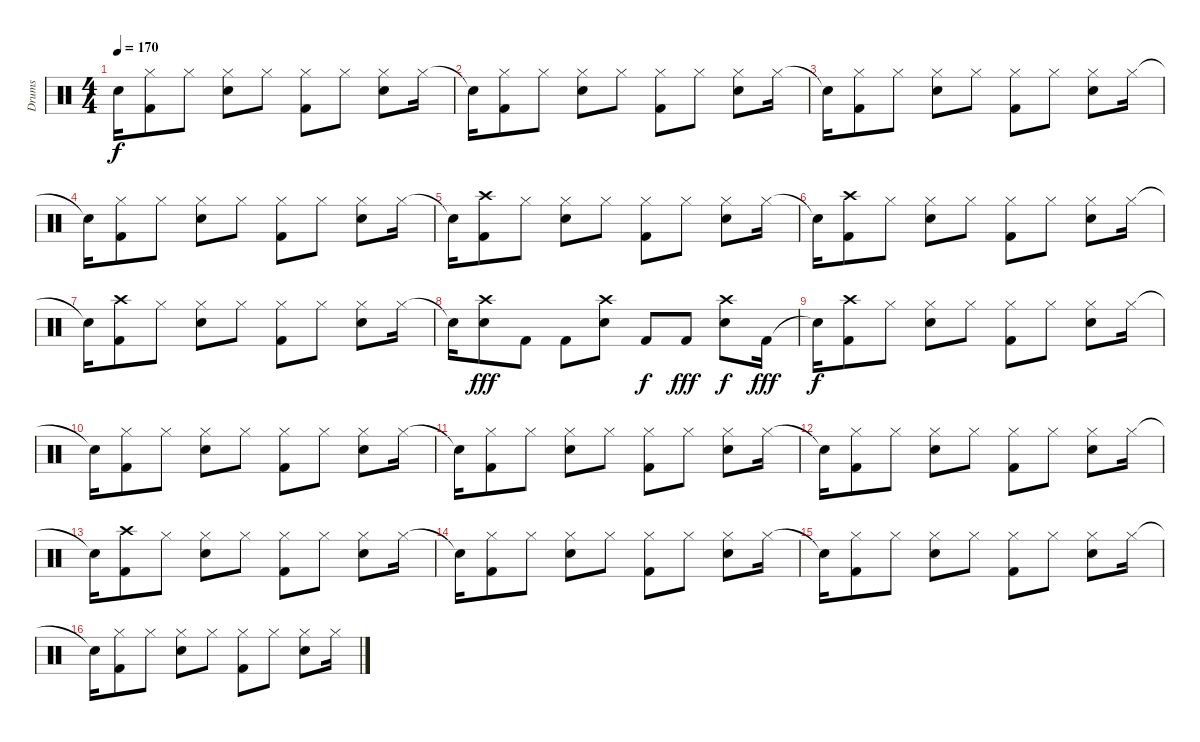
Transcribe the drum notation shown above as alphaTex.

\track ("Drums" "Drums") {instrument percussion}
\staff {score}
\articulation defaults
\ts (4 4)
\tempo 170
\clef neutral
\ks c "Snare (hit)"{t}.16{dy f}
("Kick (hit) 2" "Hi-Hat (closed)").8 "Hi-Hat (closed)".8 ("Snare (hit) 2" "Hi-Hat (closed)").8 "Hi-Hat (closed)".8 ("Kick (hit) 2" "Hi-Hat (closed)").8 "Hi-Hat (closed)".8 ("Snare (hit) 2" "Hi-Hat (closed)").8 "Hi-Hat (closed)".16 |
"Snare (hit)"{t}.16 ("Kick (hit) 2" "Hi-Hat (closed)").8 "Hi-Hat (closed)".8 ("Snare (hit) 2" "Hi-Hat (closed)").8 "Hi-Hat (closed)".8 ("Kick (hit) 2" "Hi-Hat (closed)").8 "Hi-Hat (closed)".8 ("Snare (hit) 2" "Hi-Hat (closed)").8 "Hi-Hat (closed)".16 |
"Snare (hit)"{t}.16 ("Kick (hit) 2" "Hi-Hat (closed)").8 "Hi-Hat (closed)".8 ("Snare (hit) 2" "Hi-Hat (closed)").8 "Hi-Hat (closed)".8 ("Kick (hit) 2" "Hi-Hat (closed)").8 "Hi-Hat (closed)".8 ("Snare (hit) 2" "Hi-Hat (closed)").8 "Hi-Hat (closed)".16 |
"Snare (hit)"{t}.16 ("Kick (hit) 2" "Hi-Hat (closed)").8 "Hi-Hat (closed)".8 ("Snare (hit) 2" "Hi-Hat (closed)").8 "Hi-Hat (closed)".8 ("Kick (hit) 2" "Hi-Hat (closed)").8 "Hi-Hat (closed)".8 ("Snare (hit) 2" "Hi-Hat (closed)").8 "Hi-Hat (closed)".16 |
"Snare (hit)"{t}.16 ("Kick (hit) 2" "Crash high (hit)").8 "Hi-Hat (closed)".8 ("Snare (hit) 2" "Hi-Hat (closed)").8 "Hi-Hat (closed)".8 ("Kick (hit) 2" "Hi-Hat (closed)").8 "Hi-Hat (closed)".8 ("Snare (hit) 2" "Hi-Hat (closed)").8 "Hi-Hat (closed)".16 |
"Snare (hit)"{t}.16 ("Kick (hit) 2" "Crash high (hit)").8 "Hi-Hat (closed)".8 ("Snare (hit) 2" "Hi-Hat (closed)").8 "Hi-Hat (closed)".8 ("Kick (hit) 2" "Hi-Hat (closed)").8 "Hi-Hat (closed)".8 ("Snare (hit) 2" "Hi-Hat (closed)").8 "Hi-Hat (closed)".16 |
"Snare (hit)"{t}.16 ("Kick (hit) 2" "Crash high (hit)").8 "Hi-Hat (closed)".8 ("Snare (hit) 2" "Hi-Hat (closed)").8 "Hi-Hat (closed)".8 ("Kick (hit) 2" "Hi-Hat (closed)").8 "Hi-Hat (closed)".8 ("Snare (hit) 2" "Hi-Hat (closed)").8 "Hi-Hat (closed)".16 |
"Snare (hit)"{t}.16 ("Crash high (hit)" "Snare (hit) 2").8{dy fff} "Kick (hit) 2".8 "Kick (hit) 2".8 ("Crash high (hit)" "Snare (hit) 2").8 "Kick (hit) 2".8{dy f} "Kick (hit) 2".8{dy fff} ("Crash high (hit)" "Snare (hit) 2").8{dy f} "Kick (hit) 2".16{dy fff} |
"Snare (hit)"{t}.16{dy f} ("Kick (hit) 2" "Crash high (hit)").8 "Hi-Hat (closed)".8 ("Snare (hit) 2" "Hi-Hat (closed)").8 "Hi-Hat (closed)".8 ("Kick (hit) 2" "Hi-Hat (closed)").8 "Hi-Hat (closed)".8 ("Snare (hit) 2" "Hi-Hat (closed)").8 "Hi-Hat (closed)".16 |
"Snare (hit)"{t}.16 ("Kick (hit) 2" "Hi-Hat (closed)").8 "Hi-Hat (closed)".8 ("Snare (hit) 2" "Hi-Hat (closed)").8 "Hi-Hat (closed)".8 ("Kick (hit) 2" "Hi-Hat (closed)").8 "Hi-Hat (closed)".8 ("Snare (hit) 2" "Hi-Hat (closed)").8 "Hi-Hat (closed)".16 |
"Snare (hit)"{t}.16 ("Kick (hit) 2" "Hi-Hat (closed)").8 "Hi-Hat (closed)".8 ("Snare (hit) 2" "Hi-Hat (closed)").8 "Hi-Hat (closed)".8 ("Kick (hit) 2" "Hi-Hat (closed)").8 "Hi-Hat (closed)".8 ("Snare (hit) 2" "Hi-Hat (closed)").8 "Hi-Hat (closed)".16 |
"Snare (hit)"{t}.16 ("Kick (hit) 2" "Hi-Hat (closed)").8 "Hi-Hat (closed)".8 ("Snare (hit) 2" "Hi-Hat (closed)").8 "Hi-Hat (closed)".8 ("Kick (hit) 2" "Hi-Hat (closed)").8 "Hi-Hat (closed)".8 ("Snare (hit) 2" "Hi-Hat (closed)").8 "Hi-Hat (closed)".16 |
"Snare (hit)"{t}.16 ("Kick (hit) 2" "Crash high (hit)").8 "Hi-Hat (closed)".8 ("Snare (hit) 2" "Hi-Hat (closed)").8 "Hi-Hat (closed)".8 ("Kick (hit) 2" "Hi-Hat (closed)").8 "Hi-Hat (closed)".8 ("Snare (hit) 2" "Hi-Hat (closed)").8 "Hi-Hat (closed)".16 |
"Snare (hit)"{t}.16 ("Kick (hit) 2" "Hi-Hat (closed)").8 "Hi-Hat (closed)".8 ("Snare (hit) 2" "Hi-Hat (closed)").8 "Hi-Hat (closed)".8 ("Kick (hit) 2" "Hi-Hat (closed)").8 "Hi-Hat (closed)".8 ("Snare (hit) 2" "Hi-Hat (closed)").8 "Hi-Hat (closed)".16 |
"Snare (hit)"{t}.16 ("Kick (hit) 2" "Hi-Hat (closed)").8 "Hi-Hat (closed)".8 ("Snare (hit) 2" "Hi-Hat (closed)").8 "Hi-Hat (closed)".8 ("Kick (hit) 2" "Hi-Hat (closed)").8 "Hi-Hat (closed)".8 ("Snare (hit) 2" "Hi-Hat (closed)").8 "Hi-Hat (closed)".16 |
"Snare (hit)"{t}.16 ("Kick (hit) 2" "Hi-Hat (closed)").8 "Hi-Hat (closed)".8 ("Snare (hit) 2" "Hi-Hat (closed)").8 "Hi-Hat (closed)".8 ("Kick (hit) 2" "Hi-Hat (closed)").8 "Hi-Hat (closed)".8 ("Snare (hit) 2" "Hi-Hat (closed)").8 "Hi-Hat (closed)".16
